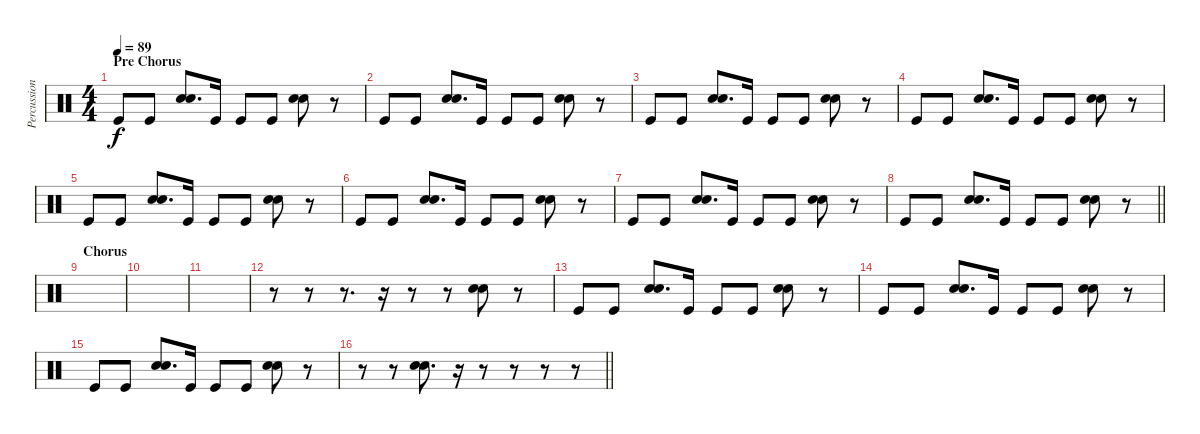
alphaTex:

\track ("Percussion" "Percussion") {instrument percussion}
\staff {score}
\articulation defaults
\ts (4 4)
\section ("" "Pre Chorus")
\tempo 89
\clef neutral
\ks c "Kick (hit)".8{dy f} "Kick (hit)".8
("Electric Snare (hit)" "Hand Clap (hit)").8{d} "Kick (hit)".16 "Kick (hit)".8 "Kick (hit)".8 ("Electric Snare (hit)" "Hand Clap (hit)").8 r.8 |
"Kick (hit)".8 "Kick (hit)".8 ("Electric Snare (hit)" "Hand Clap (hit)").8{d} "Kick (hit)".16 "Kick (hit)".8 "Kick (hit)".8 ("Electric Snare (hit)" "Hand Clap (hit)").8 r.8 |
"Kick (hit)".8 "Kick (hit)".8 ("Electric Snare (hit)" "Hand Clap (hit)").8{d} "Kick (hit)".16 "Kick (hit)".8 "Kick (hit)".8 ("Electric Snare (hit)" "Hand Clap (hit)").8 r.8 |
"Kick (hit)".8 "Kick (hit)".8 ("Electric Snare (hit)" "Hand Clap (hit)").8{d} "Kick (hit)".16 "Kick (hit)".8 "Kick (hit)".8 ("Electric Snare (hit)" "Hand Clap (hit)").8 r.8 |
"Kick (hit)".8 "Kick (hit)".8 ("Electric Snare (hit)" "Hand Clap (hit)").8{d} "Kick (hit)".16 "Kick (hit)".8 "Kick (hit)".8 ("Electric Snare (hit)" "Hand Clap (hit)").8 r.8 |
"Kick (hit)".8 "Kick (hit)".8 ("Electric Snare (hit)" "Hand Clap (hit)").8{d} "Kick (hit)".16 "Kick (hit)".8 "Kick (hit)".8 ("Electric Snare (hit)" "Hand Clap (hit)").8 r.8 |
"Kick (hit)".8 "Kick (hit)".8 ("Electric Snare (hit)" "Hand Clap (hit)").8{d} "Kick (hit)".16 "Kick (hit)".8 "Kick (hit)".8 ("Electric Snare (hit)" "Hand Clap (hit)").8 r.8 |
\barLineRight lightlight "Kick (hit)".8 "Kick (hit)".8
("Electric Snare (hit)" "Hand Clap (hit)").8{d} "Kick (hit)".16 "Kick (hit)".8 "Kick (hit)".8 ("Electric Snare (hit)" "Hand Clap (hit)").8 r.8 |
\section ("" "Chorus")
|
|
|
r.8 r.8 r.8{d} r.16 r.8 r.8 ("Electric Snare (hit)" "Hand Clap (hit)").8 r.8 |
"Kick (hit)".8 "Kick (hit)".8 ("Electric Snare (hit)" "Hand Clap (hit)").8{d} "Kick (hit)".16 "Kick (hit)".8 "Kick (hit)".8 ("Electric Snare (hit)" "Hand Clap (hit)").8 r.8 |
"Kick (hit)".8 "Kick (hit)".8 ("Electric Snare (hit)" "Hand Clap (hit)").8{d} "Kick (hit)".16 "Kick (hit)".8 "Kick (hit)".8 ("Electric Snare (hit)" "Hand Clap (hit)").8 r.8 |
"Kick (hit)".8 "Kick (hit)".8 ("Electric Snare (hit)" "Hand Clap (hit)").8{d} "Kick (hit)".16 "Kick (hit)".8 "Kick (hit)".8 ("Electric Snare (hit)" "Hand Clap (hit)").8 r.8 |
\barLineRight lightlight
r.8 r.8 ("Electric Snare (hit)" "Hand Clap (hit)").8{d} r.16 r.8 r.8 r.8 r.8
